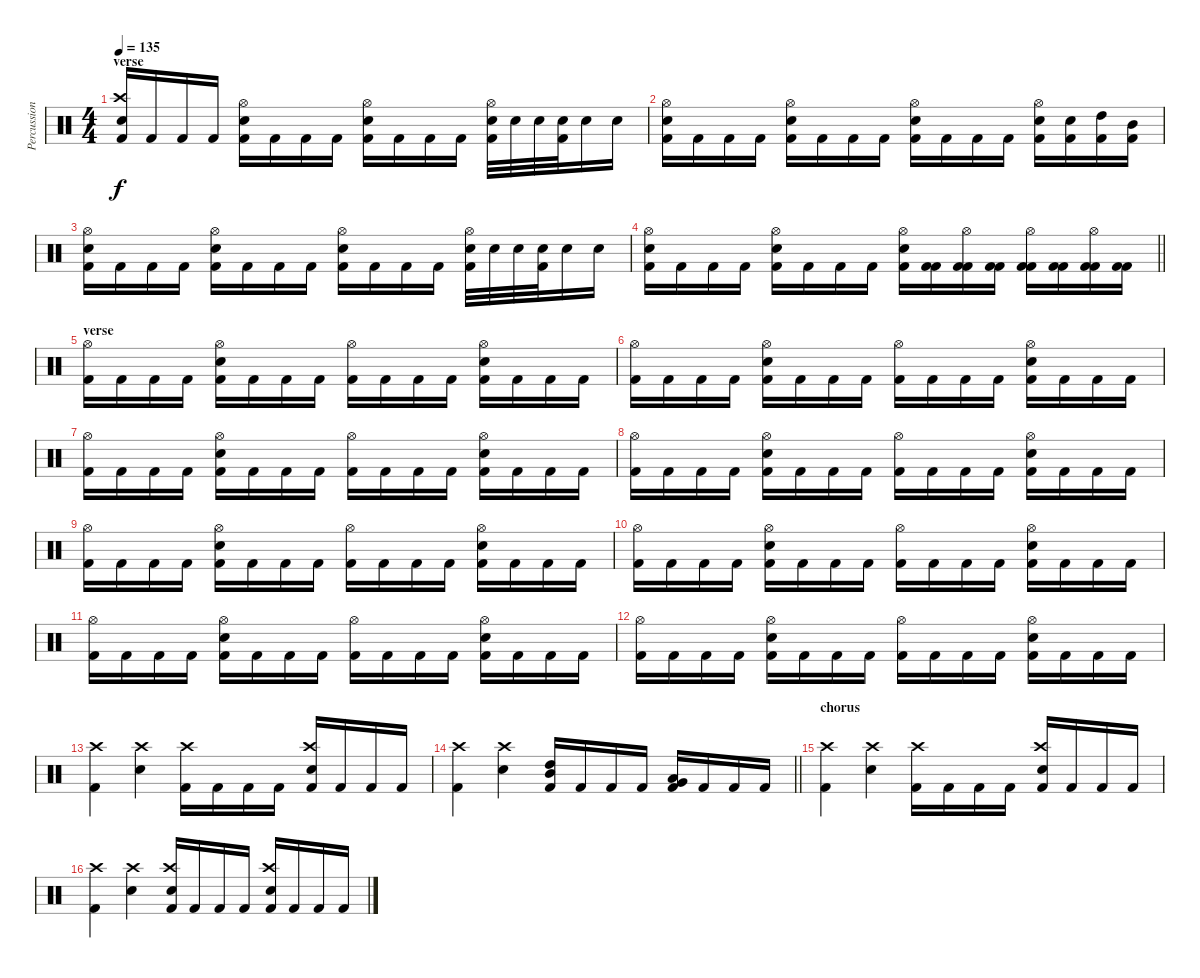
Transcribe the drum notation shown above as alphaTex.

\track ("Percussion" "Percussion") {instrument percussion}
\staff {score}
\articulation defaults
\ts (4 4)
\section ("" "verse")
\tempo 135
\clef neutral
\ks c
("Kick (hit) 2" "Crash high (hit)" "Electric Snare (hit)").16{dy f} "Kick (hit) 2".16 "Kick (hit) 2".16 "Kick (hit) 2".16 ("Kick (hit) 2" "Hi-Hat (open)" "Electric Snare (hit)").16 "Kick (hit) 2".16 "Kick (hit) 2".16 "Kick (hit) 2".16 ("Kick (hit) 2" "Hi-Hat (open)" "Electric Snare (hit)").16 "Kick (hit) 2".16 "Kick (hit) 2".16 "Kick (hit) 2".16 ("Kick (hit) 2" "Hi-Hat (open)" "Electric Snare (hit)").32 "Electric Snare (hit)".32 "Electric Snare (hit)".32 ("Kick (hit) 2" "Electric Snare (hit)").32 "Electric Snare (hit)".16 "Electric Snare (hit)".16 |
("Kick (hit) 2" "Hi-Hat (open)" "Electric Snare (hit)").16 "Kick (hit) 2".16 "Kick (hit) 2".16 "Kick (hit) 2".16 ("Kick (hit) 2" "Hi-Hat (open)" "Electric Snare (hit)").16 "Kick (hit) 2".16 "Kick (hit) 2".16 "Kick (hit) 2".16 ("Kick (hit) 2" "Hi-Hat (open)" "Electric Snare (hit)").16 "Kick (hit) 2".16 "Kick (hit) 2".16 "Kick (hit) 2".16 ("Kick (hit) 2" "Hi-Hat (open)" "Electric Snare (hit)").16 ("Kick (hit) 2" "Electric Snare (hit)").16 ("Kick (hit) 2" "High Tom (hit)").16 ("Kick (hit) 2" "Mid Tom (hit)").16 |
("Kick (hit) 2" "Hi-Hat (open)" "Electric Snare (hit)").16 "Kick (hit) 2".16 "Kick (hit) 2".16 "Kick (hit) 2".16 ("Kick (hit) 2" "Hi-Hat (open)" "Electric Snare (hit)").16 "Kick (hit) 2".16 "Kick (hit) 2".16 "Kick (hit) 2".16 ("Kick (hit) 2" "Hi-Hat (open)" "Electric Snare (hit)").16 "Kick (hit) 2".16 "Kick (hit) 2".16 "Kick (hit) 2".16 ("Kick (hit) 2" "Hi-Hat (open)" "Electric Snare (hit)").32 "Electric Snare (hit)".32 "Electric Snare (hit)".32 ("Kick (hit) 2" "Electric Snare (hit)").32 "Electric Snare (hit)".16 "Electric Snare (hit)".16 |
\barLineRight lightlight
("Kick (hit) 2" "Hi-Hat (open)" "Electric Snare (hit)").16 "Kick (hit) 2".16 "Kick (hit) 2".16 "Kick (hit) 2".16 ("Kick (hit) 2" "Hi-Hat (open)" "Electric Snare (hit)").16 "Kick (hit) 2".16 "Kick (hit) 2".16 "Kick (hit) 2".16 ("Kick (hit) 2" "Hi-Hat (open)" "Electric Snare (hit)").16 ("Kick (hit) 2" "Kick (hit) 2").16 ("Kick (hit) 2" "Hi-Hat (open)" "Kick (hit) 2").16 ("Kick (hit) 2" "Kick (hit) 2").16 ("Kick (hit) 2" "Hi-Hat (open)" "Kick (hit) 2").16 ("Kick (hit) 2" "Kick (hit) 2").16 ("Kick (hit) 2" "Hi-Hat (open)" "Kick (hit) 2").16 ("Kick (hit) 2" "Kick (hit) 2").16 |
\section ("" "verse")
("Kick (hit) 2" "Hi-Hat (open)").16 "Kick (hit) 2".16 "Kick (hit) 2".16 "Kick (hit) 2".16 ("Kick (hit) 2" "Hi-Hat (open)" "Electric Snare (hit)").16 "Kick (hit) 2".16 "Kick (hit) 2".16 "Kick (hit) 2".16 ("Kick (hit) 2" "Hi-Hat (open)").16 "Kick (hit) 2".16 "Kick (hit) 2".16 "Kick (hit) 2".16 ("Kick (hit) 2" "Hi-Hat (open)" "Electric Snare (hit)").16 "Kick (hit) 2".16 "Kick (hit) 2".16 "Kick (hit) 2".16 |
("Kick (hit) 2" "Hi-Hat (open)").16 "Kick (hit) 2".16 "Kick (hit) 2".16 "Kick (hit) 2".16 ("Kick (hit) 2" "Hi-Hat (open)" "Electric Snare (hit)").16 "Kick (hit) 2".16 "Kick (hit) 2".16 "Kick (hit) 2".16 ("Kick (hit) 2" "Hi-Hat (open)").16 "Kick (hit) 2".16 "Kick (hit) 2".16 "Kick (hit) 2".16 ("Kick (hit) 2" "Hi-Hat (open)" "Electric Snare (hit)").16 "Kick (hit) 2".16 "Kick (hit) 2".16 "Kick (hit) 2".16 |
("Kick (hit) 2" "Hi-Hat (open)").16 "Kick (hit) 2".16 "Kick (hit) 2".16 "Kick (hit) 2".16 ("Kick (hit) 2" "Hi-Hat (open)" "Electric Snare (hit)").16 "Kick (hit) 2".16 "Kick (hit) 2".16 "Kick (hit) 2".16 ("Kick (hit) 2" "Hi-Hat (open)").16 "Kick (hit) 2".16 "Kick (hit) 2".16 "Kick (hit) 2".16 ("Kick (hit) 2" "Hi-Hat (open)" "Electric Snare (hit)").16 "Kick (hit) 2".16 "Kick (hit) 2".16 "Kick (hit) 2".16 |
("Kick (hit) 2" "Hi-Hat (open)").16 "Kick (hit) 2".16 "Kick (hit) 2".16 "Kick (hit) 2".16 ("Kick (hit) 2" "Hi-Hat (open)" "Electric Snare (hit)").16 "Kick (hit) 2".16 "Kick (hit) 2".16 "Kick (hit) 2".16 ("Kick (hit) 2" "Hi-Hat (open)").16 "Kick (hit) 2".16 "Kick (hit) 2".16 "Kick (hit) 2".16 ("Kick (hit) 2" "Hi-Hat (open)" "Electric Snare (hit)").16 "Kick (hit) 2".16 "Kick (hit) 2".16 "Kick (hit) 2".16 |
("Kick (hit) 2" "Hi-Hat (open)").16 "Kick (hit) 2".16 "Kick (hit) 2".16 "Kick (hit) 2".16 ("Kick (hit) 2" "Hi-Hat (open)" "Electric Snare (hit)").16 "Kick (hit) 2".16 "Kick (hit) 2".16 "Kick (hit) 2".16 ("Kick (hit) 2" "Hi-Hat (open)").16 "Kick (hit) 2".16 "Kick (hit) 2".16 "Kick (hit) 2".16 ("Kick (hit) 2" "Hi-Hat (open)" "Electric Snare (hit)").16 "Kick (hit) 2".16 "Kick (hit) 2".16 "Kick (hit) 2".16 |
("Kick (hit) 2" "Hi-Hat (open)").16 "Kick (hit) 2".16 "Kick (hit) 2".16 "Kick (hit) 2".16 ("Kick (hit) 2" "Hi-Hat (open)" "Electric Snare (hit)").16 "Kick (hit) 2".16 "Kick (hit) 2".16 "Kick (hit) 2".16 ("Kick (hit) 2" "Hi-Hat (open)").16 "Kick (hit) 2".16 "Kick (hit) 2".16 "Kick (hit) 2".16 ("Kick (hit) 2" "Hi-Hat (open)" "Electric Snare (hit)").16 "Kick (hit) 2".16 "Kick (hit) 2".16 "Kick (hit) 2".16 |
("Kick (hit) 2" "Hi-Hat (open)").16 "Kick (hit) 2".16 "Kick (hit) 2".16 "Kick (hit) 2".16 ("Kick (hit) 2" "Hi-Hat (open)" "Electric Snare (hit)").16 "Kick (hit) 2".16 "Kick (hit) 2".16 "Kick (hit) 2".16 ("Kick (hit) 2" "Hi-Hat (open)").16 "Kick (hit) 2".16 "Kick (hit) 2".16 "Kick (hit) 2".16 ("Kick (hit) 2" "Hi-Hat (open)" "Electric Snare (hit)").16 "Kick (hit) 2".16 "Kick (hit) 2".16 "Kick (hit) 2".16 |
("Kick (hit) 2" "Hi-Hat (open)").16 "Kick (hit) 2".16 "Kick (hit) 2".16 "Kick (hit) 2".16 ("Kick (hit) 2" "Hi-Hat (open)" "Electric Snare (hit)").16 "Kick (hit) 2".16 "Kick (hit) 2".16 "Kick (hit) 2".16 ("Kick (hit) 2" "Hi-Hat (open)").16 "Kick (hit) 2".16 "Kick (hit) 2".16 "Kick (hit) 2".16 ("Kick (hit) 2" "Hi-Hat (open)" "Electric Snare (hit)").16 "Kick (hit) 2".16 "Kick (hit) 2".16 "Kick (hit) 2".16 |
("Crash high (hit)" "Kick (hit) 2").4 ("Crash high (hit)" "Electric Snare (hit)").4 ("Kick (hit) 2" "Crash high (hit)").16 "Kick (hit) 2".16 "Kick (hit) 2".16 "Kick (hit) 2".16 ("Kick (hit) 2" "Crash high (hit)" "Electric Snare (hit)").16 "Kick (hit) 2".16 "Kick (hit) 2".16 "Kick (hit) 2".16 |
\barLineRight lightlight
("Crash high (hit)" "Kick (hit) 2").4 ("Crash high (hit)" "Electric Snare (hit)").4 ("Kick (hit) 2" "High Tom (hit)" "Mid Tom (hit)").16 "Kick (hit) 2".16 "Kick (hit) 2".16 "Kick (hit) 2".16 ("Kick (hit) 2" "Very Low Tom (hit)" "Low Tom (hit)").16 "Kick (hit) 2".16 "Kick (hit) 2".16 "Kick (hit) 2".16 |
\section ("" "chorus")
("Crash high (hit)" "Kick (hit) 2").4 ("Crash high (hit)" "Electric Snare (hit)").4 ("Kick (hit) 2" "Crash high (hit)").16 "Kick (hit) 2".16 "Kick (hit) 2".16 "Kick (hit) 2".16 ("Kick (hit) 2" "Crash high (hit)" "Electric Snare (hit)").16 "Kick (hit) 2".16 "Kick (hit) 2".16 "Kick (hit) 2".16 |
("Crash high (hit)" "Kick (hit) 2").4 ("Crash high (hit)" "Electric Snare (hit)").4 ("Kick (hit) 2" "Electric Snare (hit)" "Crash high (hit)").16 "Kick (hit) 2".16 "Kick (hit) 2".16 "Kick (hit) 2".16 ("Kick (hit) 2" "Electric Snare (hit)" "Crash high (hit)").16 "Kick (hit) 2".16 "Kick (hit) 2".16 "Kick (hit) 2".16
